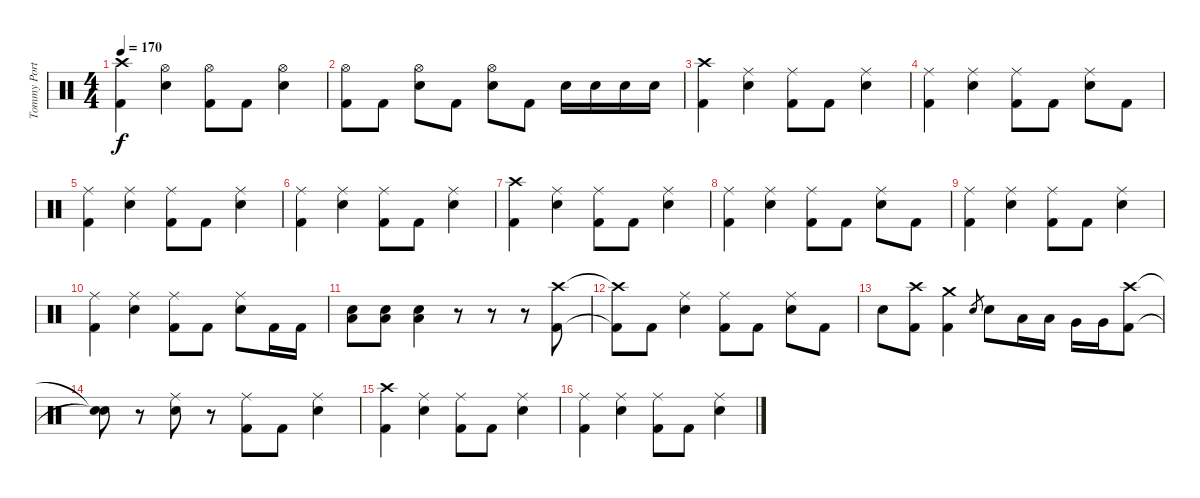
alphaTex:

\track ("Tommy Portino" "Tommy Port") {instrument percussion}
\staff {score}
\articulation defaults
\ts (4 4)
\tempo 170
\clef neutral
\ks c
("Crash high (hit)" "Kick (hit) 2").4{dy f} ("Hi-Hat (open)" "Electric Snare (hit)").4 ("Hi-Hat (open)" "Kick (hit) 2").8 "Kick (hit) 2".8 ("Hi-Hat (open)" "Electric Snare (hit)").4 |
("Hi-Hat (open)" "Kick (hit) 2").8 "Kick (hit) 2".8 ("Hi-Hat (open)" "Electric Snare (hit)").8 "Kick (hit) 2".8 ("Hi-Hat (open)" "Electric Snare (hit)").8 "Kick (hit) 2".8 "Electric Snare (hit)".16 "Electric Snare (hit)".16 "Electric Snare (hit)".16 "Electric Snare (hit)".16 |
("Crash high (hit)" "Kick (hit) 2").4 ("Ride (middle)" "Electric Snare (hit)").4 ("Ride (middle)" "Kick (hit) 2").8 "Kick (hit) 2".8 ("Ride (middle)" "Electric Snare (hit)").4 |
("Ride (middle)" "Kick (hit) 2").4 ("Ride (middle)" "Electric Snare (hit)").4 ("Ride (middle)" "Kick (hit) 2").8 "Kick (hit) 2".8 ("Ride (middle)" "Electric Snare (hit)").8 "Kick (hit) 2".8 |
("Ride (middle)" "Kick (hit) 2").4 ("Ride (middle)" "Electric Snare (hit)").4 ("Ride (middle)" "Kick (hit) 2").8 "Kick (hit) 2".8 ("Ride (middle)" "Electric Snare (hit)").4 |
("Ride (middle)" "Kick (hit) 2").4 ("Ride (middle)" "Electric Snare (hit)").4 ("Ride (middle)" "Kick (hit) 2").8 "Kick (hit) 2".8 ("Ride (middle)" "Electric Snare (hit)").4 |
("Crash high (hit)" "Kick (hit) 2").4 ("Ride (middle)" "Electric Snare (hit)").4 ("Ride (middle)" "Kick (hit) 2").8 "Kick (hit) 2".8 ("Ride (middle)" "Electric Snare (hit)").4 |
("Ride (middle)" "Kick (hit) 2").4 ("Ride (middle)" "Electric Snare (hit)").4 ("Ride (middle)" "Kick (hit) 2").8 "Kick (hit) 2".8 ("Ride (middle)" "Electric Snare (hit)").8 "Kick (hit) 2".8 |
("Ride (middle)" "Kick (hit) 2").4 ("Ride (middle)" "Electric Snare (hit)").4 ("Ride (middle)" "Kick (hit) 2").8 "Kick (hit) 2".8 ("Ride (middle)" "Electric Snare (hit)").4 |
("Ride (middle)" "Kick (hit) 2").4 ("Ride (middle)" "Electric Snare (hit)").4 ("Ride (middle)" "Kick (hit) 2").8 "Kick (hit) 2".8 ("Ride (middle)" "Electric Snare (hit)").8 "Kick (hit) 2".16 "Kick (hit) 2".16 |
("Electric Snare (hit)" "Low Floor Tom (hit)").8 ("Electric Snare (hit)" "Low Floor Tom (hit)").8 ("Electric Snare (hit)" "Low Floor Tom (hit)").4 r.8 r.8 r.8 ("Crash high (hit)" "Kick (hit) 2").8 |
("Crash high (hit)"{t} "Kick (hit) 2"{t}).8 "Kick (hit) 2".8 ("Ride (middle)" "Electric Snare (hit)").4 ("Ride (middle)" "Kick (hit) 2").8 "Kick (hit) 2".8 ("Ride (middle)" "Electric Snare (hit)").8 "Kick (hit) 2".8 |
"Electric Snare (hit)".8 ("Crash high (hit)" "Kick (hit) 2").8 ("Crash medium (hit)" "Kick (hit) 2").4 "Electric Snare (hit)".8{gr} "Electric Snare (hit)".8 "Low Tom (hit)".16 "Low Tom (hit)".16 "Very Low Tom (hit)".16 "Very Low Tom (hit)".16 ("Crash high (hit)" "Kick (hit) 2").8 |
("Snare (hit)"{t} "Snare (hit)"{t}).8 r.8 ("Ride (middle)" "Electric Snare (hit)").8 r.8 ("Ride (middle)" "Kick (hit) 2").8 "Kick (hit) 2".8 ("Ride (middle)" "Electric Snare (hit)").4 |
("Crash high (hit)" "Kick (hit) 2").4 ("Ride (middle)" "Electric Snare (hit)").4 ("Ride (middle)" "Kick (hit) 2").8 "Kick (hit) 2".8 ("Ride (middle)" "Electric Snare (hit)").4 |
("Ride (middle)" "Kick (hit) 2").4 ("Ride (middle)" "Electric Snare (hit)").4 ("Ride (middle)" "Kick (hit) 2").8 "Kick (hit) 2".8 ("Ride (middle)" "Electric Snare (hit)").4
